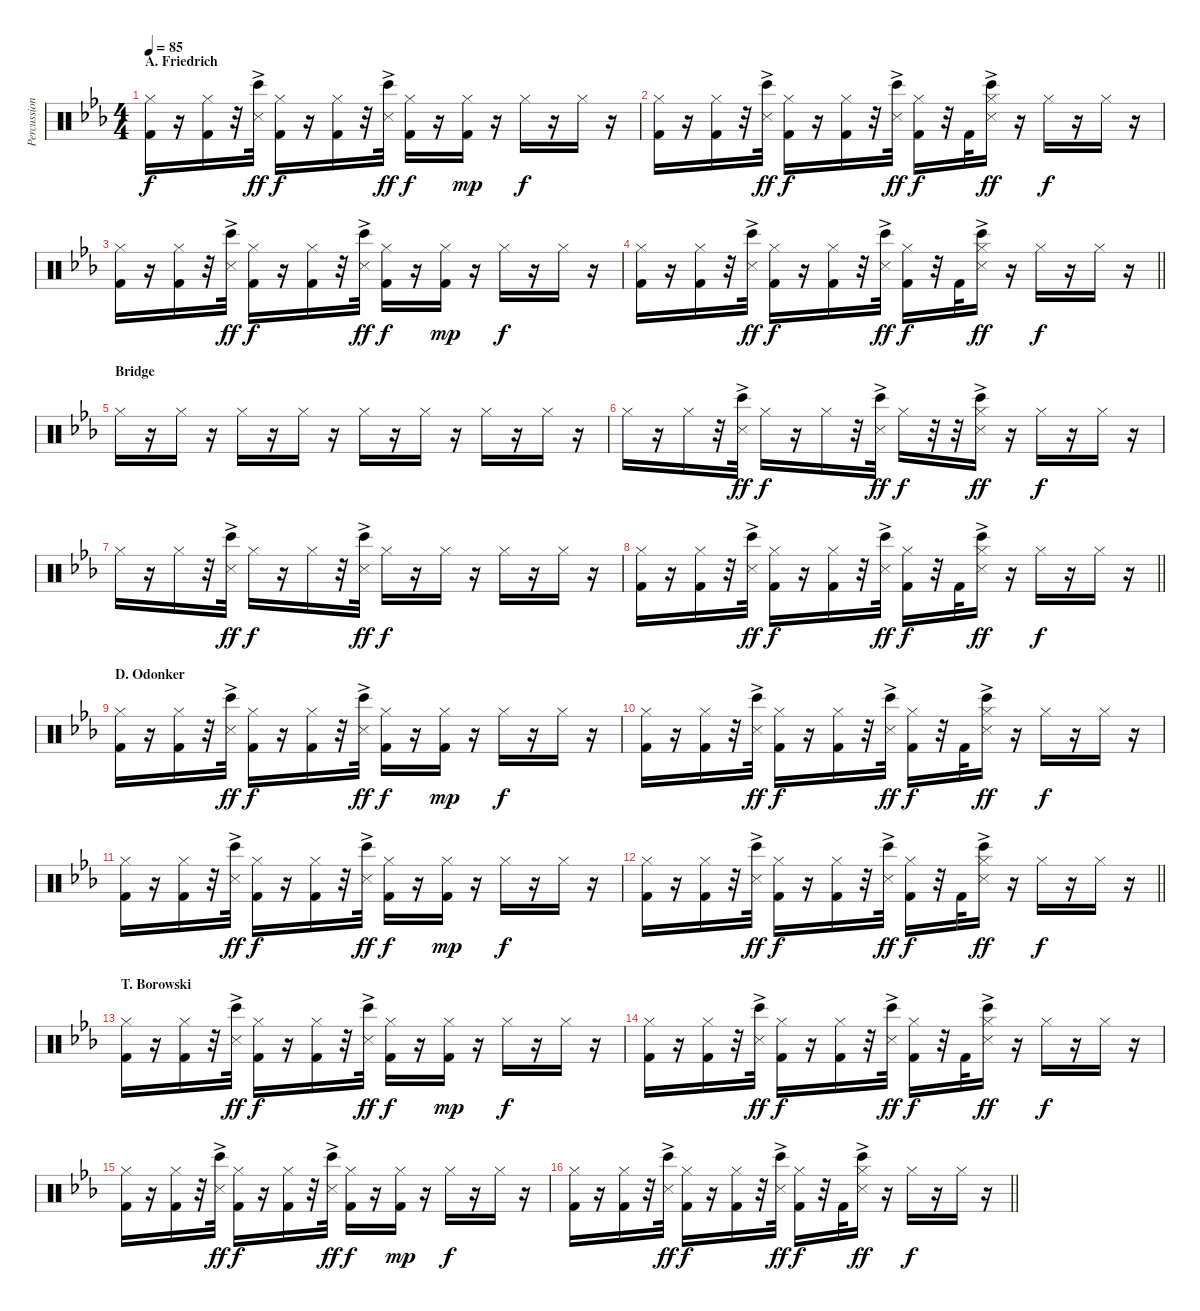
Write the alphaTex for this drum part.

\track ("Percussion" "Percussion") {instrument percussion}
\staff {score}
\articulation defaults
\ts (4 4)
\section ("" "A. Friedrich")
\tempo 85
\clef neutral
\ks cminor
("Hi-Hat (closed)" "Kick (hit) 2").16{dy f} r.16 ("Hi-Hat (closed)" "Kick (hit) 2").16 r.32 ("Bongo High (hit)" "Metronome (hit)"{ac}).32{dy ff} ("Hi-Hat (closed)" "Kick (hit) 2").16{dy f} r.16 ("Hi-Hat (closed)" "Kick (hit) 2").16 r.32 ("Bongo High (hit)" "Metronome (hit)"{ac}).32{dy ff} ("Hi-Hat (closed)" "Kick (hit) 2").16{dy f} r.16 ("Hi-Hat (closed)" "Kick (hit) 2").16{dy mp} r.16 "Hi-Hat (closed)".16{dy f} r.16 "Hi-Hat (closed)".16 r.16 |
("Hi-Hat (closed)" "Kick (hit) 2").16 r.16 ("Hi-Hat (closed)" "Kick (hit) 2").16 r.32 ("Bongo High (hit)" "Metronome (hit)"{ac}).32{dy ff} ("Hi-Hat (closed)" "Kick (hit) 2").16{dy f} r.16 ("Hi-Hat (closed)" "Kick (hit) 2").16 r.32 ("Bongo High (hit)" "Metronome (hit)"{ac}).32{dy ff} ("Hi-Hat (closed)" "Kick (hit) 2").16{dy f} r.32 "Kick (hit) 2".32 ("Hi-Hat (closed)" "Bongo High (hit)" "Metronome (hit)"{ac}).16{dy ff} r.16 "Hi-Hat (closed)".16{dy f} r.16 "Hi-Hat (closed)".16 r.16 |
("Hi-Hat (closed)" "Kick (hit) 2").16 r.16 ("Hi-Hat (closed)" "Kick (hit) 2").16 r.32 ("Bongo High (hit)" "Metronome (hit)"{ac}).32{dy ff} ("Hi-Hat (closed)" "Kick (hit) 2").16{dy f} r.16 ("Hi-Hat (closed)" "Kick (hit) 2").16 r.32 ("Bongo High (hit)" "Metronome (hit)"{ac}).32{dy ff} ("Hi-Hat (closed)" "Kick (hit) 2").16{dy f} r.16 ("Hi-Hat (closed)" "Kick (hit) 2").16{dy mp} r.16 "Hi-Hat (closed)".16{dy f} r.16 "Hi-Hat (closed)".16 r.16 |
\barLineRight lightlight
("Hi-Hat (closed)" "Kick (hit) 2").16 r.16 ("Hi-Hat (closed)" "Kick (hit) 2").16 r.32 ("Bongo High (hit)" "Metronome (hit)"{ac}).32{dy ff} ("Hi-Hat (closed)" "Kick (hit) 2").16{dy f} r.16 ("Hi-Hat (closed)" "Kick (hit) 2").16 r.32 ("Bongo High (hit)" "Metronome (hit)"{ac}).32{dy ff} ("Hi-Hat (closed)" "Kick (hit) 2").16{dy f} r.32 "Kick (hit) 2".32 ("Hi-Hat (closed)" "Bongo High (hit)" "Metronome (hit)"{ac}).16{dy ff} r.16 "Hi-Hat (closed)".16{dy f} r.16 "Hi-Hat (closed)".16 r.16 |
\section ("" "Bridge")
"Hi-Hat (closed)".16 r.16 "Hi-Hat (closed)".16 r.16 "Hi-Hat (closed)".16 r.16 "Hi-Hat (closed)".16 r.16 "Hi-Hat (closed)".16 r.16 "Hi-Hat (closed)".16 r.16 "Hi-Hat (closed)".16 r.16 "Hi-Hat (closed)".16 r.16 |
"Hi-Hat (closed)".16 r.16 "Hi-Hat (closed)".16 r.32 ("Bongo High (hit)" "Metronome (hit)"{ac}).32{dy ff} "Hi-Hat (closed)".16{dy f} r.16 "Hi-Hat (closed)".16 r.32 ("Bongo High (hit)" "Metronome (hit)"{ac}).32{dy ff} "Hi-Hat (closed)".16{dy f} r.32 r.32 ("Hi-Hat (closed)" "Bongo High (hit)" "Metronome (hit)"{ac}).16{dy ff} r.16 "Hi-Hat (closed)".16{dy f} r.16 "Hi-Hat (closed)".16 r.16 |
"Hi-Hat (closed)".16 r.16 "Hi-Hat (closed)".16 r.32 ("Bongo High (hit)" "Metronome (hit)"{ac}).32{dy ff} "Hi-Hat (closed)".16{dy f} r.16 "Hi-Hat (closed)".16 r.32 ("Bongo High (hit)" "Metronome (hit)"{ac}).32{dy ff} "Hi-Hat (closed)".16{dy f} r.16 "Hi-Hat (closed)".16 r.16 "Hi-Hat (closed)".16 r.16 "Hi-Hat (closed)".16 r.16 |
\barLineRight lightlight
("Hi-Hat (closed)" "Kick (hit) 2").16 r.16 ("Hi-Hat (closed)" "Kick (hit) 2").16 r.32 ("Bongo High (hit)" "Metronome (hit)"{ac}).32{dy ff} ("Hi-Hat (closed)" "Kick (hit) 2").16{dy f} r.16 ("Hi-Hat (closed)" "Kick (hit) 2").16 r.32 ("Bongo High (hit)" "Metronome (hit)"{ac}).32{dy ff} ("Hi-Hat (closed)" "Kick (hit) 2").16{dy f} r.32 "Kick (hit) 2".32 ("Hi-Hat (closed)" "Bongo High (hit)" "Metronome (hit)"{ac}).16{dy ff} r.16 "Hi-Hat (closed)".16{dy f} r.16 "Hi-Hat (closed)".16 r.16 |
\section ("" "D. Odonker")
("Hi-Hat (closed)" "Kick (hit) 2").16 r.16 ("Hi-Hat (closed)" "Kick (hit) 2").16 r.32 ("Bongo High (hit)" "Metronome (hit)"{ac}).32{dy ff} ("Hi-Hat (closed)" "Kick (hit) 2").16{dy f} r.16 ("Hi-Hat (closed)" "Kick (hit) 2").16 r.32 ("Bongo High (hit)" "Metronome (hit)"{ac}).32{dy ff} ("Hi-Hat (closed)" "Kick (hit) 2").16{dy f} r.16 ("Hi-Hat (closed)" "Kick (hit) 2").16{dy mp} r.16 "Hi-Hat (closed)".16{dy f} r.16 "Hi-Hat (closed)".16 r.16 |
("Hi-Hat (closed)" "Kick (hit) 2").16 r.16 ("Hi-Hat (closed)" "Kick (hit) 2").16 r.32 ("Bongo High (hit)" "Metronome (hit)"{ac}).32{dy ff} ("Hi-Hat (closed)" "Kick (hit) 2").16{dy f} r.16 ("Hi-Hat (closed)" "Kick (hit) 2").16 r.32 ("Bongo High (hit)" "Metronome (hit)"{ac}).32{dy ff} ("Hi-Hat (closed)" "Kick (hit) 2").16{dy f} r.32 "Kick (hit) 2".32 ("Hi-Hat (closed)" "Bongo High (hit)" "Metronome (hit)"{ac}).16{dy ff} r.16 "Hi-Hat (closed)".16{dy f} r.16 "Hi-Hat (closed)".16 r.16 |
("Hi-Hat (closed)" "Kick (hit) 2").16 r.16 ("Hi-Hat (closed)" "Kick (hit) 2").16 r.32 ("Bongo High (hit)" "Metronome (hit)"{ac}).32{dy ff} ("Hi-Hat (closed)" "Kick (hit) 2").16{dy f} r.16 ("Hi-Hat (closed)" "Kick (hit) 2").16 r.32 ("Bongo High (hit)" "Metronome (hit)"{ac}).32{dy ff} ("Hi-Hat (closed)" "Kick (hit) 2").16{dy f} r.16 ("Hi-Hat (closed)" "Kick (hit) 2").16{dy mp} r.16 "Hi-Hat (closed)".16{dy f} r.16 "Hi-Hat (closed)".16 r.16 |
\barLineRight lightlight
("Hi-Hat (closed)" "Kick (hit) 2").16 r.16 ("Hi-Hat (closed)" "Kick (hit) 2").16 r.32 ("Bongo High (hit)" "Metronome (hit)"{ac}).32{dy ff} ("Hi-Hat (closed)" "Kick (hit) 2").16{dy f} r.16 ("Hi-Hat (closed)" "Kick (hit) 2").16 r.32 ("Bongo High (hit)" "Metronome (hit)"{ac}).32{dy ff} ("Hi-Hat (closed)" "Kick (hit) 2").16{dy f} r.32 "Kick (hit) 2".32 ("Hi-Hat (closed)" "Bongo High (hit)" "Metronome (hit)"{ac}).16{dy ff} r.16 "Hi-Hat (closed)".16{dy f} r.16 "Hi-Hat (closed)".16 r.16 |
\section ("" "T. Borowski")
("Hi-Hat (closed)" "Kick (hit) 2").16 r.16 ("Hi-Hat (closed)" "Kick (hit) 2").16 r.32 ("Bongo High (hit)" "Metronome (hit)"{ac}).32{dy ff} ("Hi-Hat (closed)" "Kick (hit) 2").16{dy f} r.16 ("Hi-Hat (closed)" "Kick (hit) 2").16 r.32 ("Bongo High (hit)" "Metronome (hit)"{ac}).32{dy ff} ("Hi-Hat (closed)" "Kick (hit) 2").16{dy f} r.16 ("Hi-Hat (closed)" "Kick (hit) 2").16{dy mp} r.16 "Hi-Hat (closed)".16{dy f} r.16 "Hi-Hat (closed)".16 r.16 |
("Hi-Hat (closed)" "Kick (hit) 2").16 r.16 ("Hi-Hat (closed)" "Kick (hit) 2").16 r.32 ("Bongo High (hit)" "Metronome (hit)"{ac}).32{dy ff} ("Hi-Hat (closed)" "Kick (hit) 2").16{dy f} r.16 ("Hi-Hat (closed)" "Kick (hit) 2").16 r.32 ("Bongo High (hit)" "Metronome (hit)"{ac}).32{dy ff} ("Hi-Hat (closed)" "Kick (hit) 2").16{dy f} r.32 "Kick (hit) 2".32 ("Hi-Hat (closed)" "Bongo High (hit)" "Metronome (hit)"{ac}).16{dy ff} r.16 "Hi-Hat (closed)".16{dy f} r.16 "Hi-Hat (closed)".16 r.16 |
("Hi-Hat (closed)" "Kick (hit) 2").16 r.16 ("Hi-Hat (closed)" "Kick (hit) 2").16 r.32 ("Bongo High (hit)" "Metronome (hit)"{ac}).32{dy ff} ("Hi-Hat (closed)" "Kick (hit) 2").16{dy f} r.16 ("Hi-Hat (closed)" "Kick (hit) 2").16 r.32 ("Bongo High (hit)" "Metronome (hit)"{ac}).32{dy ff} ("Hi-Hat (closed)" "Kick (hit) 2").16{dy f} r.16 ("Hi-Hat (closed)" "Kick (hit) 2").16{dy mp} r.16 "Hi-Hat (closed)".16{dy f} r.16 "Hi-Hat (closed)".16 r.16 |
\barLineRight lightlight
("Hi-Hat (closed)" "Kick (hit) 2").16 r.16 ("Hi-Hat (closed)" "Kick (hit) 2").16 r.32 ("Bongo High (hit)" "Metronome (hit)"{ac}).32{dy ff} ("Hi-Hat (closed)" "Kick (hit) 2").16{dy f} r.16 ("Hi-Hat (closed)" "Kick (hit) 2").16 r.32 ("Bongo High (hit)" "Metronome (hit)"{ac}).32{dy ff} ("Hi-Hat (closed)" "Kick (hit) 2").16{dy f} r.32 "Kick (hit) 2".32 ("Hi-Hat (closed)" "Bongo High (hit)" "Metronome (hit)"{ac}).16{dy ff} r.16 "Hi-Hat (closed)".16{dy f} r.16 "Hi-Hat (closed)".16 r.16
